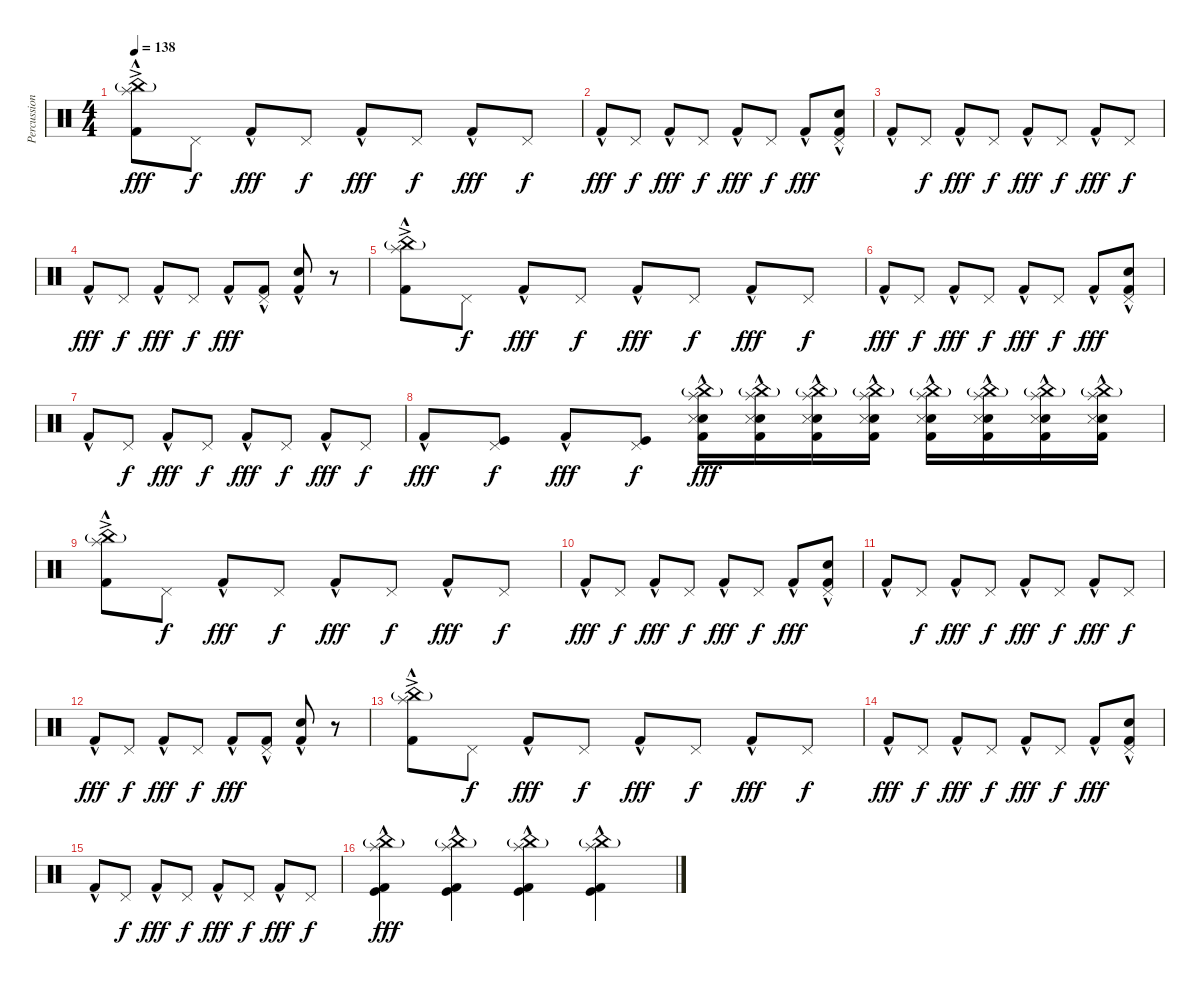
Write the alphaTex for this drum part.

\track ("Percussions" "Percussion") {instrument percussion}
\staff {score}
\articulation defaults
\ts (4 4)
\tempo 138
\clef neutral
\ks c
("Splash (hit)"{ac} "China (hit)"{g} "Kick (hit) 2"{hac}).8{dy fff} "Pedal Hi-Hat (hit)".8{dy f} "Kick (hit) 2"{hac}.8{dy fff} "Pedal Hi-Hat (hit)".8{dy f} "Kick (hit) 2"{hac}.8{dy fff} "Pedal Hi-Hat (hit)".8{dy f} "Kick (hit) 2"{hac}.8{dy fff} "Pedal Hi-Hat (hit)".8{dy f} |
"Kick (hit) 2"{hac}.8{dy fff} "Pedal Hi-Hat (hit)".8{dy f} "Kick (hit) 2"{hac}.8{dy fff} "Pedal Hi-Hat (hit)".8{dy f} "Kick (hit) 2"{hac}.8{dy fff} "Pedal Hi-Hat (hit)".8{dy f} "Kick (hit) 2"{hac}.8{dy fff} ("Snare (hit) 2" "Pedal Hi-Hat (hit)" "Kick (hit) 2"{hac}).8 |
"Kick (hit) 2"{hac}.8 "Pedal Hi-Hat (hit)".8{dy f} "Kick (hit) 2"{hac}.8{dy fff} "Pedal Hi-Hat (hit)".8{dy f} "Kick (hit) 2"{hac}.8{dy fff} "Pedal Hi-Hat (hit)".8{dy f} "Kick (hit) 2"{hac}.8{dy fff} "Pedal Hi-Hat (hit)".8{dy f} |
"Kick (hit) 2"{hac}.8{dy fff} "Pedal Hi-Hat (hit)".8{dy f} "Kick (hit) 2"{hac}.8{dy fff} "Pedal Hi-Hat (hit)".8{dy f} "Kick (hit) 2"{hac}.8{dy fff} ("Pedal Hi-Hat (hit)" "Kick (hit) 2"{hac}).8 ("Snare (hit) 2" "Kick (hit) 2"{hac}).8 r.8 |
("Splash (hit)"{ac} "China (hit)"{g} "Kick (hit) 2"{hac}).8 "Pedal Hi-Hat (hit)".8{dy f} "Kick (hit) 2"{hac}.8{dy fff} "Pedal Hi-Hat (hit)".8{dy f} "Kick (hit) 2"{hac}.8{dy fff} "Pedal Hi-Hat (hit)".8{dy f} "Kick (hit) 2"{hac}.8{dy fff} "Pedal Hi-Hat (hit)".8{dy f} |
"Kick (hit) 2"{hac}.8{dy fff} "Pedal Hi-Hat (hit)".8{dy f} "Kick (hit) 2"{hac}.8{dy fff} "Pedal Hi-Hat (hit)".8{dy f} "Kick (hit) 2"{hac}.8{dy fff} "Pedal Hi-Hat (hit)".8{dy f} "Kick (hit) 2"{hac}.8{dy fff} ("Snare (hit) 2" "Pedal Hi-Hat (hit)" "Kick (hit) 2"{hac}).8 |
"Kick (hit) 2"{hac}.8 "Pedal Hi-Hat (hit)".8{dy f} "Kick (hit) 2"{hac}.8{dy fff} "Pedal Hi-Hat (hit)".8{dy f} "Kick (hit) 2"{hac}.8{dy fff} "Pedal Hi-Hat (hit)".8{dy f} "Kick (hit) 2"{hac}.8{dy fff} "Pedal Hi-Hat (hit)".8{dy f} |
"Kick (hit) 2"{hac}.8{dy fff} ("Pedal Hi-Hat (hit)" "Kick (hit)").8{dy f} "Kick (hit) 2"{hac}.8{dy fff} ("Pedal Hi-Hat (hit)" "Kick (hit)").8{dy f} ("Splash (hit)" "China (hit)"{g} "Snare (hit) 2" "Metronome (hit)" "Kick (hit) 2"{hac}).16{dy fff} ("Splash (hit)" "China (hit)"{g} "Snare (hit) 2" "Metronome (hit)" "Kick (hit) 2"{hac}).16 ("Splash (hit)" "China (hit)"{g} "Snare (hit) 2" "Metronome (hit)" "Kick (hit) 2"{hac}).16 ("Splash (hit)" "China (hit)"{g} "Snare (hit) 2" "Metronome (hit)" "Kick (hit) 2"{hac}).16 ("Splash (hit)" "China (hit)"{g} "Snare (hit) 2" "Metronome (hit)" "Kick (hit) 2"{hac}).16 ("Splash (hit)" "China (hit)"{g} "Snare (hit) 2" "Metronome (hit)" "Kick (hit) 2"{hac}).16 ("Splash (hit)" "China (hit)"{g} "Snare (hit) 2" "Metronome (hit)" "Kick (hit) 2"{hac}).16 ("Splash (hit)" "China (hit)"{g} "Snare (hit) 2" "Metronome (hit)" "Kick (hit) 2"{hac}).16 |
("Splash (hit)"{ac} "China (hit)"{g} "Kick (hit) 2"{hac}).8 "Pedal Hi-Hat (hit)".8{dy f} "Kick (hit) 2"{hac}.8{dy fff} "Pedal Hi-Hat (hit)".8{dy f} "Kick (hit) 2"{hac}.8{dy fff} "Pedal Hi-Hat (hit)".8{dy f} "Kick (hit) 2"{hac}.8{dy fff} "Pedal Hi-Hat (hit)".8{dy f} |
"Kick (hit) 2"{hac}.8{dy fff} "Pedal Hi-Hat (hit)".8{dy f} "Kick (hit) 2"{hac}.8{dy fff} "Pedal Hi-Hat (hit)".8{dy f} "Kick (hit) 2"{hac}.8{dy fff} "Pedal Hi-Hat (hit)".8{dy f} "Kick (hit) 2"{hac}.8{dy fff} ("Snare (hit) 2" "Pedal Hi-Hat (hit)" "Kick (hit) 2"{hac}).8 |
"Kick (hit) 2"{hac}.8 "Pedal Hi-Hat (hit)".8{dy f} "Kick (hit) 2"{hac}.8{dy fff} "Pedal Hi-Hat (hit)".8{dy f} "Kick (hit) 2"{hac}.8{dy fff} "Pedal Hi-Hat (hit)".8{dy f} "Kick (hit) 2"{hac}.8{dy fff} "Pedal Hi-Hat (hit)".8{dy f} |
"Kick (hit) 2"{hac}.8{dy fff} "Pedal Hi-Hat (hit)".8{dy f} "Kick (hit) 2"{hac}.8{dy fff} "Pedal Hi-Hat (hit)".8{dy f} "Kick (hit) 2"{hac}.8{dy fff} ("Pedal Hi-Hat (hit)" "Kick (hit) 2"{hac}).8 ("Snare (hit) 2" "Kick (hit) 2"{hac}).8 r.8 |
("Splash (hit)"{ac} "China (hit)"{g} "Kick (hit) 2"{hac}).8 "Pedal Hi-Hat (hit)".8{dy f} "Kick (hit) 2"{hac}.8{dy fff} "Pedal Hi-Hat (hit)".8{dy f} "Kick (hit) 2"{hac}.8{dy fff} "Pedal Hi-Hat (hit)".8{dy f} "Kick (hit) 2"{hac}.8{dy fff} "Pedal Hi-Hat (hit)".8{dy f} |
"Kick (hit) 2"{hac}.8{dy fff} "Pedal Hi-Hat (hit)".8{dy f} "Kick (hit) 2"{hac}.8{dy fff} "Pedal Hi-Hat (hit)".8{dy f} "Kick (hit) 2"{hac}.8{dy fff} "Pedal Hi-Hat (hit)".8{dy f} "Kick (hit) 2"{hac}.8{dy fff} ("Snare (hit) 2" "Pedal Hi-Hat (hit)" "Kick (hit) 2"{hac}).8 |
"Kick (hit) 2"{hac}.8 "Pedal Hi-Hat (hit)".8{dy f} "Kick (hit) 2"{hac}.8{dy fff} "Pedal Hi-Hat (hit)".8{dy f} "Kick (hit) 2"{hac}.8{dy fff} "Pedal Hi-Hat (hit)".8{dy f} "Kick (hit) 2"{hac}.8{dy fff} "Pedal Hi-Hat (hit)".8{dy f} |
("Splash (hit)" "China (hit)"{g} "Kick (hit)" "Kick (hit) 2"{hac}).4{dy fff} ("Splash (hit)" "China (hit)"{g} "Kick (hit)" "Kick (hit) 2"{hac}).4 ("Splash (hit)" "China (hit)"{g} "Kick (hit)" "Kick (hit) 2"{hac}).4 ("Splash (hit)" "China (hit)"{g} "Kick (hit)" "Kick (hit) 2"{hac}).4
